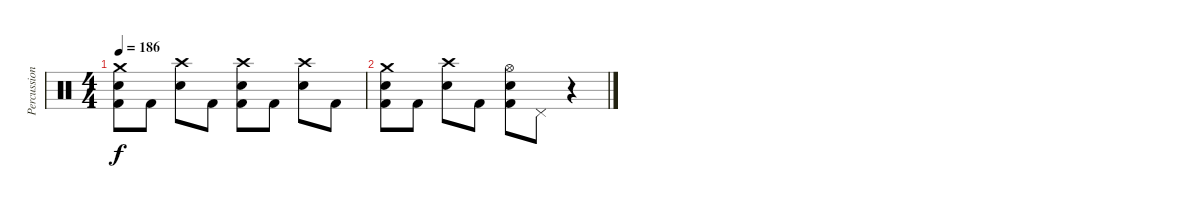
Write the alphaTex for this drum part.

\track ("Percussion" "Percussion") {instrument percussion}
\staff {score}
\articulation defaults
\ts (4 4)
\tempo 186
\clef neutral
\ks c
("Crash medium (hit)" "Electric Snare (hit)" "Kick (hit) 2").8{dy f} "Kick (hit) 2".8 ("Crash high (hit)" "Electric Snare (hit)").8 "Kick (hit) 2".8 ("Crash high (hit)" "Electric Snare (hit)" "Kick (hit) 2").8 "Kick (hit) 2".8 ("Crash high (hit)" "Electric Snare (hit)").8 "Kick (hit) 2".8 |
("Crash medium (hit)" "Electric Snare (hit)" "Kick (hit) 2").8 "Kick (hit) 2".8 ("Crash high (hit)" "Electric Snare (hit)").8 "Kick (hit) 2".8 ("Hi-Hat (open)" "Electric Snare (hit)" "Kick (hit) 2").8 "Pedal Hi-Hat (hit)".8 r.4
